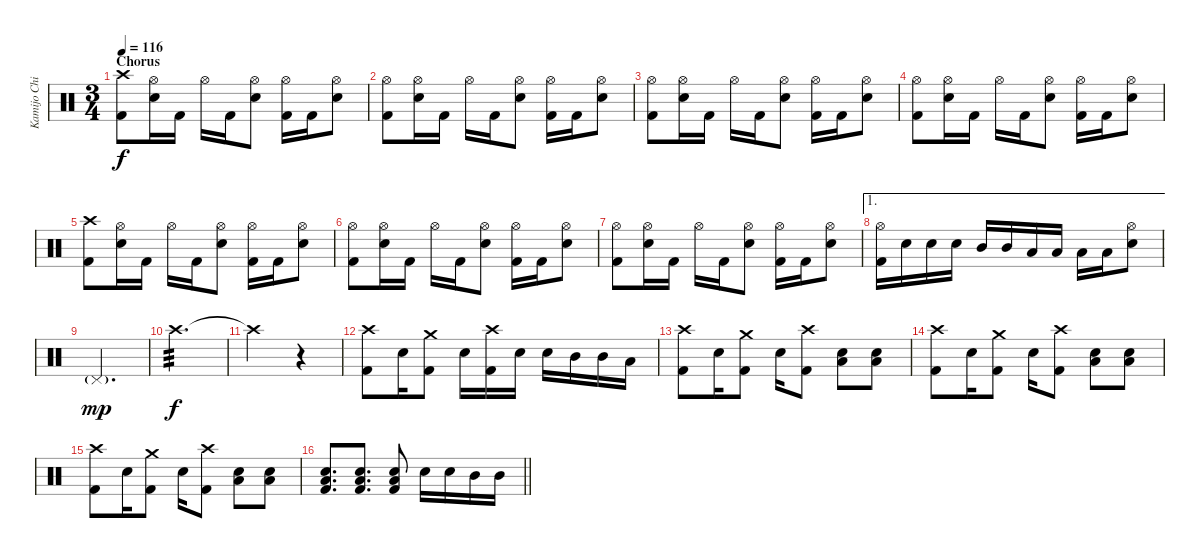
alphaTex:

\track ("Kamijo Chihiro" "Kamijo Chi") {instrument percussion}
\staff {score}
\articulation defaults
\ts (3 4)
\section ("" "Chorus")
\tempo 116
\clef neutral
\ks c
("Crash high (hit)" "Kick (hit) 2").8{dy f} ("Hi-Hat (open)" "Snare (hit) 2").16 "Kick (hit) 2".16 "Hi-Hat (open)".16 "Kick (hit) 2".16 ("Hi-Hat (open)" "Snare (hit) 2").8 ("Hi-Hat (open)" "Kick (hit) 2").16 "Kick (hit) 2".16 ("Hi-Hat (open)" "Snare (hit) 2").8 |
("Hi-Hat (open)" "Kick (hit) 2").8 ("Hi-Hat (open)" "Snare (hit) 2").16 "Kick (hit) 2".16 "Hi-Hat (open)".16 "Kick (hit) 2".16 ("Hi-Hat (open)" "Snare (hit) 2").8 ("Hi-Hat (open)" "Kick (hit) 2").16 "Kick (hit) 2".16 ("Hi-Hat (open)" "Snare (hit) 2").8 |
("Hi-Hat (open)" "Kick (hit) 2").8 ("Hi-Hat (open)" "Snare (hit) 2").16 "Kick (hit) 2".16 "Hi-Hat (open)".16 "Kick (hit) 2".16 ("Hi-Hat (open)" "Snare (hit) 2").8 ("Hi-Hat (open)" "Kick (hit) 2").16 "Kick (hit) 2".16 ("Hi-Hat (open)" "Snare (hit) 2").8 |
("Hi-Hat (open)" "Kick (hit) 2").8 ("Hi-Hat (open)" "Snare (hit) 2").16 "Kick (hit) 2".16 "Hi-Hat (open)".16 "Kick (hit) 2".16 ("Hi-Hat (open)" "Snare (hit) 2").8 ("Hi-Hat (open)" "Kick (hit) 2").16 "Kick (hit) 2".16 ("Hi-Hat (open)" "Snare (hit) 2").8 |
("Crash high (hit)" "Kick (hit) 2").8 ("Hi-Hat (open)" "Snare (hit) 2").16 "Kick (hit) 2".16 "Hi-Hat (open)".16 "Kick (hit) 2".16 ("Hi-Hat (open)" "Snare (hit) 2").8 ("Hi-Hat (open)" "Kick (hit) 2").16 "Kick (hit) 2".16 ("Hi-Hat (open)" "Snare (hit) 2").8 |
("Hi-Hat (open)" "Kick (hit) 2").8 ("Hi-Hat (open)" "Snare (hit) 2").16 "Kick (hit) 2".16 "Hi-Hat (open)".16 "Kick (hit) 2".16 ("Hi-Hat (open)" "Snare (hit) 2").8 ("Hi-Hat (open)" "Kick (hit) 2").16 "Kick (hit) 2".16 ("Hi-Hat (open)" "Snare (hit) 2").8 |
("Hi-Hat (open)" "Kick (hit) 2").8 ("Hi-Hat (open)" "Snare (hit) 2").16 "Kick (hit) 2".16 "Hi-Hat (open)".16 "Kick (hit) 2".16 ("Hi-Hat (open)" "Snare (hit) 2").8 ("Hi-Hat (open)" "Kick (hit) 2").16 "Kick (hit) 2".16 ("Hi-Hat (open)" "Snare (hit) 2").8 |
\ae 1
("Hi-Hat (open)" "Kick (hit) 2").16 "Snare (hit) 2".16 "Snare (hit) 2".16 "Snare (hit) 2".16 "Mid Tom (hit)".16 "Mid Tom (hit)".16 "Low Tom (hit)".16 "Low Tom (hit)".16 "Low Floor Tom (hit)".16 "Low Floor Tom (hit)".16 ("Hi-Hat (open)" "Snare (hit) 2").8 |
"Pedal Hi-Hat (hit)"{g}.2{d dy mp volume 0} |
"Crash high (hit)".2{d tp 3 dy f volume 16} |
"Crash high (hit)"{t}.2 r.4 |
("Crash high (hit)" "Kick (hit) 2").8 "Snare (hit) 2".16 ("Crash medium (hit)" "Kick (hit) 2").8 "Snare (hit) 2".16 ("Crash high (hit)" "Kick (hit) 2").16 "Snare (hit) 2".16 "Snare (hit) 2".16 "Mid Tom (hit)".16 "Mid Tom (hit)".16 "Low Tom (hit)".16 |
("Crash high (hit)" "Kick (hit) 2").8 "Snare (hit) 2".16 ("Crash medium (hit)" "Kick (hit) 2").8 "Snare (hit) 2".16 ("Crash high (hit)" "Kick (hit) 2").8 ("Snare (hit) 2" "Low Floor Tom (hit)").8 ("Snare (hit) 2" "Low Floor Tom (hit)").8 |
("Crash high (hit)" "Kick (hit) 2").8 "Snare (hit) 2".16 ("Crash medium (hit)" "Kick (hit) 2").8 "Snare (hit) 2".16 ("Crash high (hit)" "Kick (hit) 2").8 ("Snare (hit) 2" "Low Floor Tom (hit)").8 ("Snare (hit) 2" "Low Floor Tom (hit)").8 |
("Crash high (hit)" "Kick (hit) 2").8 "Snare (hit) 2".16 ("Crash medium (hit)" "Kick (hit) 2").8 "Snare (hit) 2".16 ("Crash high (hit)" "Kick (hit) 2").8 ("Snare (hit) 2" "Low Floor Tom (hit)").8 ("Snare (hit) 2" "Low Floor Tom (hit)").8 |
\barLineRight lightlight
("Snare (hit) 2" "Low Floor Tom (hit)" "Kick (hit) 2").8{d} ("Snare (hit) 2" "Low Floor Tom (hit)" "Kick (hit) 2").8{d} ("Snare (hit) 2" "Low Floor Tom (hit)" "Kick (hit) 2").8 "Snare (hit) 2".16 "Snare (hit) 2".16 "Mid Tom (hit)".16 "Mid Tom (hit)".16
